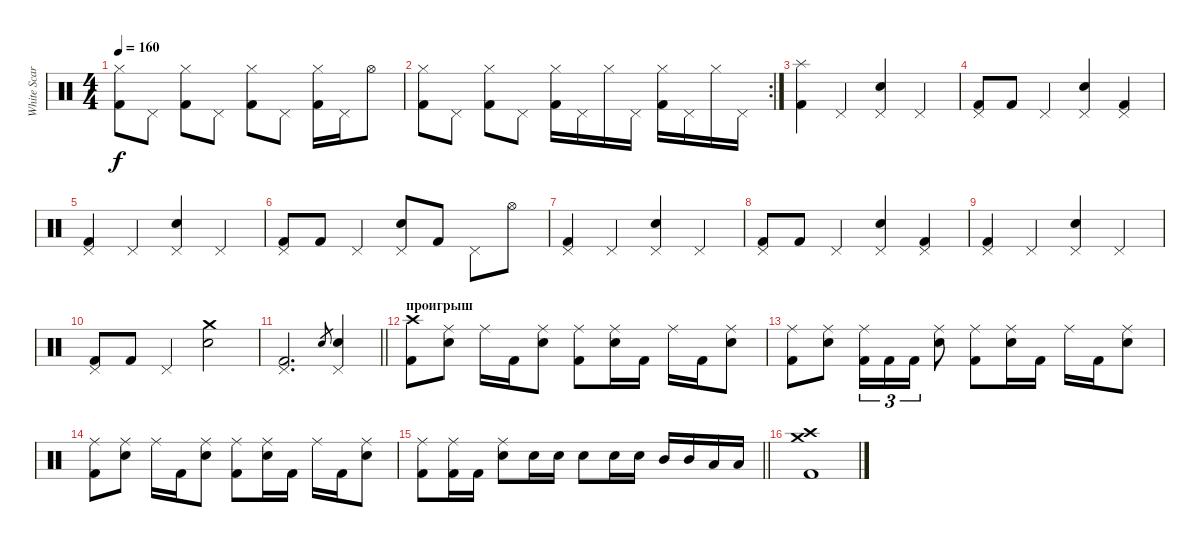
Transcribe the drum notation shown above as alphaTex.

\track ("White Scar" "White Scar") {instrument percussion}
\staff {score}
\articulation defaults
\ts (4 4)
\tempo 160
\clef neutral
\ks c
("Hi-Hat (closed)" "Kick (hit) 2").8{dy f} "Pedal Hi-Hat (hit)".8 ("Hi-Hat (closed)" "Kick (hit) 2").8 "Pedal Hi-Hat (hit)".8 ("Hi-Hat (closed)" "Kick (hit) 2").8 "Pedal Hi-Hat (hit)".8 ("Hi-Hat (closed)" "Kick (hit) 2").16 "Pedal Hi-Hat (hit)".16 "Hi-Hat (open)".8 |
\rc 2
("Hi-Hat (closed)" "Kick (hit) 2").8 "Pedal Hi-Hat (hit)".8 ("Hi-Hat (closed)" "Kick (hit) 2").8 "Pedal Hi-Hat (hit)".8 ("Hi-Hat (closed)" "Kick (hit) 2").16 "Pedal Hi-Hat (hit)".16 "Hi-Hat (closed)".16 "Pedal Hi-Hat (hit)".16 ("Hi-Hat (closed)" "Kick (hit) 2").16 "Pedal Hi-Hat (hit)".16 "Hi-Hat (closed)".16 "Pedal Hi-Hat (hit)".16 |
("Splash (hit)" "Kick (hit) 2").4 "Pedal Hi-Hat (hit)".4 ("Pedal Hi-Hat (hit)" "Snare (hit) 2").4 "Pedal Hi-Hat (hit)".4 |
("Pedal Hi-Hat (hit)" "Kick (hit) 2").8 "Kick (hit) 2".8 "Pedal Hi-Hat (hit)".4 ("Pedal Hi-Hat (hit)" "Snare (hit) 2").4 ("Pedal Hi-Hat (hit)" "Kick (hit) 2").4 |
("Pedal Hi-Hat (hit)" "Kick (hit) 2").4 "Pedal Hi-Hat (hit)".4 ("Pedal Hi-Hat (hit)" "Snare (hit) 2").4 "Pedal Hi-Hat (hit)".4 |
("Pedal Hi-Hat (hit)" "Kick (hit) 2").8 "Kick (hit) 2".8 "Pedal Hi-Hat (hit)".4 ("Pedal Hi-Hat (hit)" "Snare (hit) 2").8 "Kick (hit) 2".8 "Pedal Hi-Hat (hit)".8 "Hi-Hat (open)".8 |
("Pedal Hi-Hat (hit)" "Kick (hit) 2").4 "Pedal Hi-Hat (hit)".4 ("Pedal Hi-Hat (hit)" "Snare (hit) 2").4 "Pedal Hi-Hat (hit)".4 |
("Pedal Hi-Hat (hit)" "Kick (hit) 2").8 "Kick (hit) 2".8 "Pedal Hi-Hat (hit)".4 ("Pedal Hi-Hat (hit)" "Snare (hit) 2").4 ("Pedal Hi-Hat (hit)" "Kick (hit) 2").4 |
("Pedal Hi-Hat (hit)" "Kick (hit) 2").4 "Pedal Hi-Hat (hit)".4 ("Pedal Hi-Hat (hit)" "Snare (hit) 2").4 "Pedal Hi-Hat (hit)".4 |
("Pedal Hi-Hat (hit)" "Kick (hit) 2").8 "Kick (hit) 2".8 "Pedal Hi-Hat (hit)".4 ("Crash medium (hit)" "Snare (hit) 2").2 |
\barLineRight lightlight
("Pedal Hi-Hat (hit)" "Kick (hit) 2").2{d} "Snare (hit) 2".8{gr} ("Pedal Hi-Hat (hit)" "Snare (hit) 2").4 |
\section ("" "проигрыш")
("Crash high (hit)" "Kick (hit) 2").8 ("Ride (middle)" "Snare (hit) 2").8 "Ride (middle)".16 "Kick (hit) 2".16 ("Ride (middle)" "Snare (hit) 2").8 ("Ride (middle)" "Kick (hit) 2").8 ("Ride (middle)" "Snare (hit) 2").16 "Kick (hit) 2".16 "Ride (middle)".16 "Kick (hit) 2".16 ("Ride (middle)" "Snare (hit) 2").8 |
("Ride (middle)" "Kick (hit) 2").8 ("Ride (middle)" "Snare (hit) 2").8 ("Ride (middle)" "Kick (hit) 2").16{tu (3 2)} "Kick (hit) 2".16{tu (3 2)} "Kick (hit) 2".16{tu (3 2)} ("Ride (middle)" "Snare (hit) 2").8 ("Ride (middle)" "Kick (hit) 2").8 ("Ride (middle)" "Snare (hit) 2").16 "Kick (hit) 2".16 "Ride (middle)".16 "Kick (hit) 2".16 ("Ride (middle)" "Snare (hit) 2").8 |
("Ride (middle)" "Kick (hit) 2").8 ("Ride (middle)" "Snare (hit) 2").8 "Ride (middle)".16 "Kick (hit) 2".16 ("Ride (middle)" "Snare (hit) 2").8 ("Ride (middle)" "Kick (hit) 2").8 ("Ride (middle)" "Snare (hit) 2").16 "Kick (hit) 2".16 "Ride (middle)".16 "Kick (hit) 2".16 ("Ride (middle)" "Snare (hit) 2").8 |
\barLineRight lightlight
("Ride (middle)" "Kick (hit) 2").8 ("Ride (middle)" "Kick (hit) 2").16 "Kick (hit) 2".16 ("Ride (middle)" "Snare (hit) 2").8 "Snare (hit) 2".16 "Snare (hit) 2".16 "Snare (hit) 2".8 "Snare (hit) 2".16 "Snare (hit) 2".16 "Mid Tom (hit)".16 "Mid Tom (hit)".16 "Low Tom (hit)".16 "Low Tom (hit)".16 |
("Crash high (hit)" "Crash medium (hit)" "Kick (hit) 2").1
